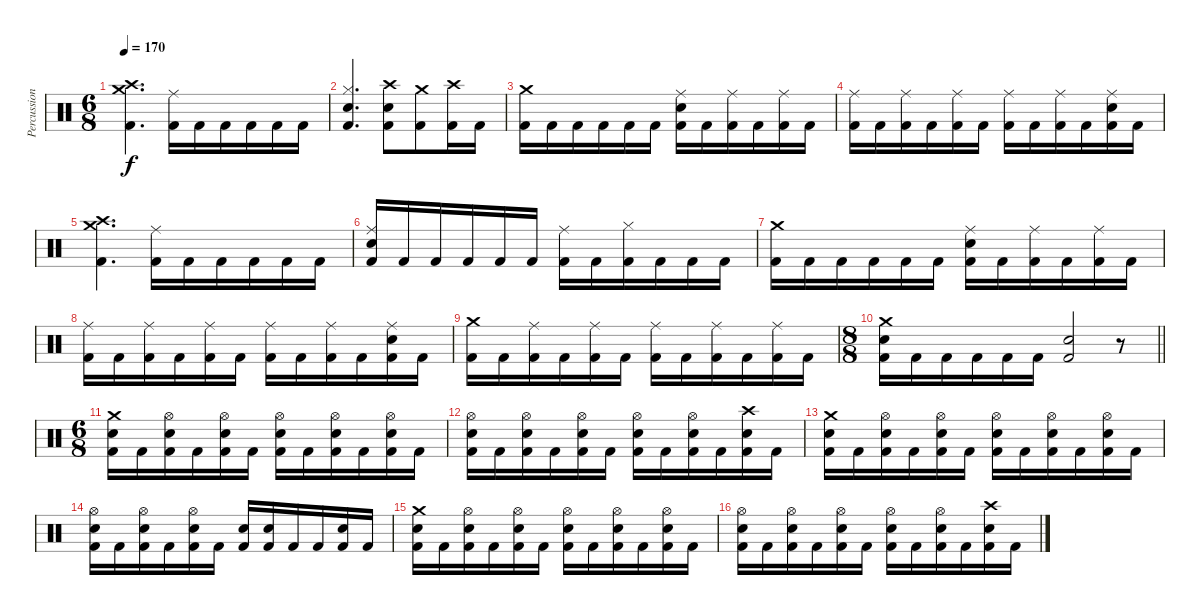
\track ("Percussions" "Percussion") {instrument percussion}
\staff {score}
\articulation defaults
\ts (6 8)
\tempo 170
\clef neutral
\ks c
("Crash high (hit)" "Crash medium (hit)" "Kick (hit) 2").4{d dy f} ("Ride (middle)" "Kick (hit) 2").16 "Kick (hit) 2".16 "Kick (hit) 2".16 "Kick (hit) 2".16 "Kick (hit) 2".16 "Kick (hit) 2".16 |
("Hi-Hat (closed)" "Electric Snare (hit)" "Kick (hit) 2").4{d} ("Crash high (hit)" "Electric Snare (hit)" "Kick (hit) 2").8 ("Crash medium (hit)" "Kick (hit) 2").8 ("Crash high (hit)" "Kick (hit) 2").16 "Kick (hit) 2".16 |
("Crash medium (hit)" "Kick (hit) 2").16 "Kick (hit) 2".16 "Kick (hit) 2".16 "Kick (hit) 2".16 "Kick (hit) 2".16 "Kick (hit) 2".16 ("Electric Snare (hit)" "Ride (middle)" "Kick (hit) 2").16 "Kick (hit) 2".16 ("Ride (middle)" "Kick (hit) 2").16 "Kick (hit) 2".16 ("Ride (middle)" "Kick (hit) 2").16 "Kick (hit) 2".16 |
("Ride (middle)" "Kick (hit) 2").16 "Kick (hit) 2".16 ("Ride (middle)" "Kick (hit) 2").16 "Kick (hit) 2".16 ("Ride (middle)" "Kick (hit) 2").16 "Kick (hit) 2".16 ("Ride (middle)" "Kick (hit) 2").16 "Kick (hit) 2".16 ("Ride (middle)" "Kick (hit) 2").16 "Kick (hit) 2".16 ("Electric Snare (hit)" "Ride (middle)" "Kick (hit) 2").16 "Kick (hit) 2".16 |
("Crash high (hit)" "Crash medium (hit)" "Kick (hit) 2").4{d} ("Ride (middle)" "Kick (hit) 2").16 "Kick (hit) 2".16 "Kick (hit) 2".16 "Kick (hit) 2".16 "Kick (hit) 2".16 "Kick (hit) 2".16 |
("Electric Snare (hit)" "Ride (middle)" "Kick (hit) 2").16 "Kick (hit) 2".16 "Kick (hit) 2".16 "Kick (hit) 2".16 "Kick (hit) 2".16 "Kick (hit) 2".16 ("Ride (middle)" "Kick (hit) 2").16 "Kick (hit) 2".16 ("Hi-Hat (closed)" "Kick (hit) 2").16 "Kick (hit) 2".16 "Kick (hit) 2".16 "Kick (hit) 2".16 |
("Crash medium (hit)" "Kick (hit) 2").16 "Kick (hit) 2".16 "Kick (hit) 2".16 "Kick (hit) 2".16 "Kick (hit) 2".16 "Kick (hit) 2".16 ("Electric Snare (hit)" "Ride (middle)" "Kick (hit) 2").16 "Kick (hit) 2".16 ("Ride (middle)" "Kick (hit) 2").16 "Kick (hit) 2".16 ("Ride (middle)" "Kick (hit) 2").16 "Kick (hit) 2".16 |
("Ride (middle)" "Kick (hit) 2").16 "Kick (hit) 2".16 ("Ride (middle)" "Kick (hit) 2").16 "Kick (hit) 2".16 ("Ride (middle)" "Kick (hit) 2").16 "Kick (hit) 2".16 ("Ride (middle)" "Kick (hit) 2").16 "Kick (hit) 2".16 ("Ride (middle)" "Kick (hit) 2").16 "Kick (hit) 2".16 ("Electric Snare (hit)" "Ride (middle)" "Kick (hit) 2").16 "Kick (hit) 2".16 |
("Crash medium (hit)" "Kick (hit) 2").16 "Kick (hit) 2".16 ("Ride (middle)" "Kick (hit) 2").16 "Kick (hit) 2".16 ("Ride (middle)" "Kick (hit) 2").16 "Kick (hit) 2".16 ("Ride (middle)" "Kick (hit) 2").16 "Kick (hit) 2".16 ("Ride (middle)" "Kick (hit) 2").16 "Kick (hit) 2".16 ("Ride (middle)" "Kick (hit) 2").16 "Kick (hit) 2".16 |
\ts (8 8)
\barLineRight lightlight
("Crash medium (hit)" "Electric Snare (hit)" "Kick (hit) 2").16 "Kick (hit) 2".16 "Kick (hit) 2".16 "Kick (hit) 2".16 "Kick (hit) 2".16 "Kick (hit) 2".16 ("Electric Snare (hit)" "Kick (hit) 2").2 r.8 |
\ts (6 8)
("Crash medium (hit)" "Electric Snare (hit)" "Kick (hit) 2").16 "Kick (hit) 2".16 ("Hi-Hat (open)" "Electric Snare (hit)" "Kick (hit) 2").16 "Kick (hit) 2".16 ("Hi-Hat (open)" "Electric Snare (hit)" "Kick (hit) 2").16 "Kick (hit) 2".16 ("Hi-Hat (open)" "Electric Snare (hit)" "Kick (hit) 2").16 "Kick (hit) 2".16 ("Hi-Hat (open)" "Electric Snare (hit)" "Kick (hit) 2").16 "Kick (hit) 2".16 ("Hi-Hat (open)" "Electric Snare (hit)" "Kick (hit) 2").16 "Kick (hit) 2".16 |
("Hi-Hat (open)" "Electric Snare (hit)" "Kick (hit) 2").16 "Kick (hit) 2".16 ("Hi-Hat (open)" "Electric Snare (hit)" "Kick (hit) 2").16 "Kick (hit) 2".16 ("Hi-Hat (open)" "Electric Snare (hit)" "Kick (hit) 2").16 "Kick (hit) 2".16 ("Hi-Hat (open)" "Electric Snare (hit)" "Kick (hit) 2").16 "Kick (hit) 2".16 ("Hi-Hat (open)" "Electric Snare (hit)" "Kick (hit) 2").16 "Kick (hit) 2".16 ("Crash high (hit)" "Electric Snare (hit)" "Kick (hit) 2").16 "Kick (hit) 2".16 |
("Crash medium (hit)" "Electric Snare (hit)" "Kick (hit) 2").16 "Kick (hit) 2".16 ("Hi-Hat (open)" "Electric Snare (hit)" "Kick (hit) 2").16 "Kick (hit) 2".16 ("Hi-Hat (open)" "Electric Snare (hit)" "Kick (hit) 2").16 "Kick (hit) 2".16 ("Hi-Hat (open)" "Electric Snare (hit)" "Kick (hit) 2").16 "Kick (hit) 2".16 ("Hi-Hat (open)" "Electric Snare (hit)" "Kick (hit) 2").16 "Kick (hit) 2".16 ("Hi-Hat (open)" "Electric Snare (hit)" "Kick (hit) 2").16 "Kick (hit) 2".16 |
("Hi-Hat (open)" "Electric Snare (hit)" "Kick (hit) 2").16 "Kick (hit) 2".16 ("Hi-Hat (open)" "Electric Snare (hit)" "Kick (hit) 2").16 "Kick (hit) 2".16 ("Hi-Hat (open)" "Electric Snare (hit)" "Kick (hit) 2").16 "Kick (hit) 2".16 ("Electric Snare (hit)" "Kick (hit) 2").16 ("Electric Snare (hit)" "Kick (hit) 2").16 "Kick (hit) 2".16 "Kick (hit) 2".16 ("Electric Snare (hit)" "Kick (hit) 2").16 "Kick (hit) 2".16 |
("Crash medium (hit)" "Electric Snare (hit)" "Kick (hit) 2").16 "Kick (hit) 2".16 ("Hi-Hat (open)" "Electric Snare (hit)" "Kick (hit) 2").16 "Kick (hit) 2".16 ("Hi-Hat (open)" "Electric Snare (hit)" "Kick (hit) 2").16 "Kick (hit) 2".16 ("Hi-Hat (open)" "Electric Snare (hit)" "Kick (hit) 2").16 "Kick (hit) 2".16 ("Hi-Hat (open)" "Electric Snare (hit)" "Kick (hit) 2").16 "Kick (hit) 2".16 ("Hi-Hat (open)" "Electric Snare (hit)" "Kick (hit) 2").16 "Kick (hit) 2".16 |
("Hi-Hat (open)" "Electric Snare (hit)" "Kick (hit) 2").16 "Kick (hit) 2".16 ("Hi-Hat (open)" "Electric Snare (hit)" "Kick (hit) 2").16 "Kick (hit) 2".16 ("Hi-Hat (open)" "Electric Snare (hit)" "Kick (hit) 2").16 "Kick (hit) 2".16 ("Hi-Hat (open)" "Electric Snare (hit)" "Kick (hit) 2").16 "Kick (hit) 2".16 ("Hi-Hat (open)" "Electric Snare (hit)" "Kick (hit) 2").16 "Kick (hit) 2".16 ("Crash high (hit)" "Electric Snare (hit)" "Kick (hit) 2").16 "Kick (hit) 2".16
